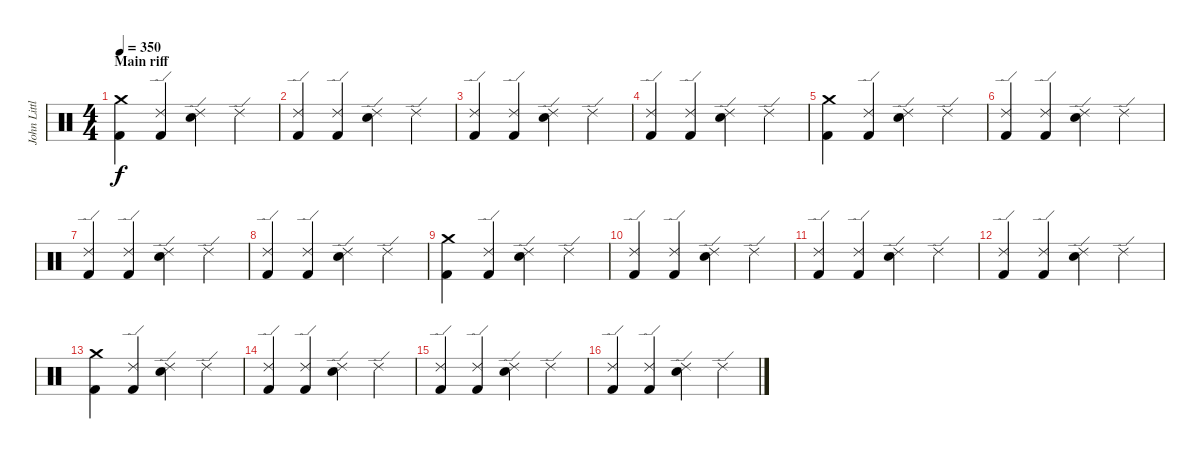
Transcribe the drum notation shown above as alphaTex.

\track ("John Littler - Drums" "John Littl") {instrument percussion}
\staff {score}
\articulation defaults
\ts (4 4)
\section ("" "Main riff")
\tempo 350
\clef neutral
\ks c
("Crash medium (hit)" "Kick (hit) 2").4{dy f} ("Ride (edge) 2" "Kick (hit) 2").4 ("Ride (edge) 2" "Snare (hit) 2").4 "Ride (edge) 2".4 |
("Ride (edge) 2" "Kick (hit) 2").4 ("Ride (edge) 2" "Kick (hit) 2").4 ("Ride (edge) 2" "Snare (hit) 2").4 "Ride (edge) 2".4 |
("Ride (edge) 2" "Kick (hit) 2").4 ("Ride (edge) 2" "Kick (hit) 2").4 ("Ride (edge) 2" "Snare (hit) 2").4 "Ride (edge) 2".4 |
("Ride (edge) 2" "Kick (hit) 2").4 ("Ride (edge) 2" "Kick (hit) 2").4 ("Ride (edge) 2" "Snare (hit) 2").4 "Ride (edge) 2".4 |
("Crash medium (hit)" "Kick (hit) 2").4 ("Ride (edge) 2" "Kick (hit) 2").4 ("Ride (edge) 2" "Snare (hit) 2").4 "Ride (edge) 2".4 |
("Ride (edge) 2" "Kick (hit) 2").4 ("Ride (edge) 2" "Kick (hit) 2").4 ("Ride (edge) 2" "Snare (hit) 2").4 "Ride (edge) 2".4 |
("Ride (edge) 2" "Kick (hit) 2").4 ("Ride (edge) 2" "Kick (hit) 2").4 ("Ride (edge) 2" "Snare (hit) 2").4 "Ride (edge) 2".4 |
("Ride (edge) 2" "Kick (hit) 2").4 ("Ride (edge) 2" "Kick (hit) 2").4 ("Ride (edge) 2" "Snare (hit) 2").4 "Ride (edge) 2".4 |
("Crash medium (hit)" "Kick (hit) 2").4 ("Ride (edge) 2" "Kick (hit) 2").4 ("Ride (edge) 2" "Snare (hit) 2").4 "Ride (edge) 2".4 |
("Ride (edge) 2" "Kick (hit) 2").4 ("Ride (edge) 2" "Kick (hit) 2").4 ("Ride (edge) 2" "Snare (hit) 2").4 "Ride (edge) 2".4 |
("Ride (edge) 2" "Kick (hit) 2").4 ("Ride (edge) 2" "Kick (hit) 2").4 ("Ride (edge) 2" "Snare (hit) 2").4 "Ride (edge) 2".4 |
("Ride (edge) 2" "Kick (hit) 2").4 ("Ride (edge) 2" "Kick (hit) 2").4 ("Ride (edge) 2" "Snare (hit) 2").4 "Ride (edge) 2".4 |
("Crash medium (hit)" "Kick (hit) 2").4 ("Ride (edge) 2" "Kick (hit) 2").4 ("Ride (edge) 2" "Snare (hit) 2").4 "Ride (edge) 2".4 |
("Ride (edge) 2" "Kick (hit) 2").4 ("Ride (edge) 2" "Kick (hit) 2").4 ("Ride (edge) 2" "Snare (hit) 2").4 "Ride (edge) 2".4 |
("Ride (edge) 2" "Kick (hit) 2").4 ("Ride (edge) 2" "Kick (hit) 2").4 ("Ride (edge) 2" "Snare (hit) 2").4 "Ride (edge) 2".4 |
("Ride (edge) 2" "Kick (hit) 2").4 ("Ride (edge) 2" "Kick (hit) 2").4 ("Ride (edge) 2" "Snare (hit) 2").4 "Ride (edge) 2".4
